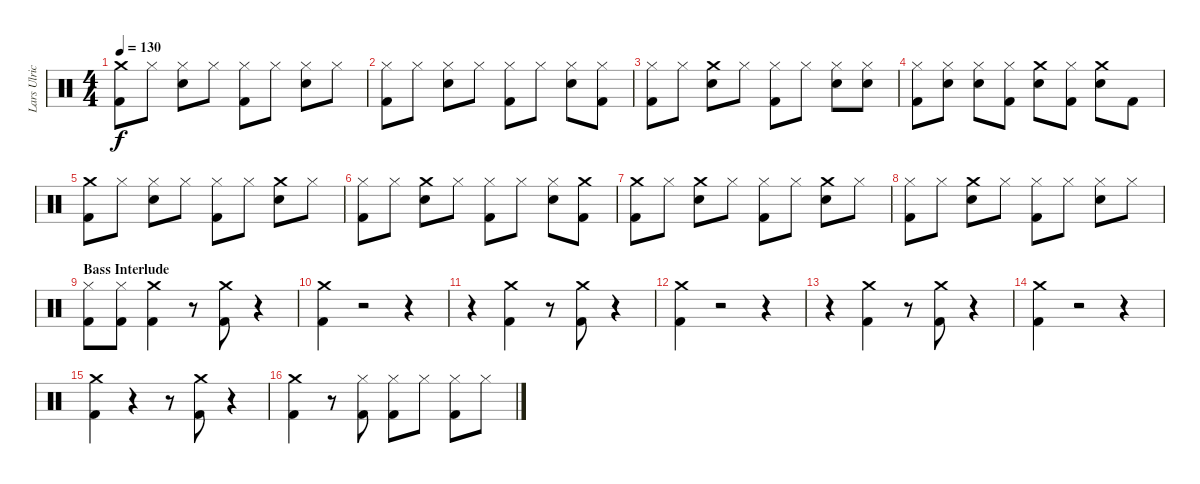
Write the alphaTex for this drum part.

\track ("Lars Ulrich (Drums)" "Lars Ulric") {instrument percussion}
\staff {score}
\articulation defaults
\ts (4 4)
\tempo 130
\clef neutral
\ks c
("Crash medium (hit)" "Kick (hit) 2").8{dy f} "Hi-Hat (closed)".8 ("Snare (hit) 2" "Hi-Hat (closed)").8 "Hi-Hat (closed)".8 ("Kick (hit) 2" "Hi-Hat (closed)").8 "Hi-Hat (closed)".8 ("Snare (hit) 2" "Hi-Hat (closed)").8 "Hi-Hat (closed)".8 |
("Kick (hit) 2" "Hi-Hat (closed)").8 "Hi-Hat (closed)".8 ("Snare (hit) 2" "Hi-Hat (closed)").8 "Hi-Hat (closed)".8 ("Kick (hit) 2" "Hi-Hat (closed)").8 "Hi-Hat (closed)".8 ("Snare (hit) 2" "Hi-Hat (closed)").8 ("Kick (hit) 2" "Hi-Hat (closed)").8 |
("Kick (hit) 2" "Hi-Hat (closed)").8 "Hi-Hat (closed)".8 ("Crash medium (hit)" "Snare (hit) 2").8 "Hi-Hat (closed)".8 ("Kick (hit) 2" "Hi-Hat (closed)").8 "Hi-Hat (closed)".8 ("Snare (hit) 2" "Hi-Hat (closed)").8 ("Snare (hit) 2" "Hi-Hat (closed)").8 |
("Kick (hit) 2" "Hi-Hat (closed)").8 ("Snare (hit) 2" "Hi-Hat (closed)").8 ("Snare (hit) 2" "Hi-Hat (closed)").8 ("Kick (hit) 2" "Hi-Hat (closed)").8 ("Crash medium (hit)" "Snare (hit) 2").8 ("Kick (hit) 2" "Hi-Hat (closed)").8 ("Crash medium (hit)" "Snare (hit) 2").8 "Kick (hit) 2".8 |
("Crash medium (hit)" "Kick (hit) 2").8 "Hi-Hat (closed)".8 ("Snare (hit) 2" "Hi-Hat (closed)").8 "Hi-Hat (closed)".8 ("Kick (hit) 2" "Hi-Hat (closed)").8 "Hi-Hat (closed)".8 ("Crash medium (hit)" "Snare (hit) 2").8 "Hi-Hat (closed)".8 |
("Kick (hit) 2" "Hi-Hat (closed)").8 "Hi-Hat (closed)".8 ("Crash medium (hit)" "Snare (hit) 2").8 "Hi-Hat (closed)".8 ("Kick (hit) 2" "Hi-Hat (closed)").8 "Hi-Hat (closed)".8 ("Snare (hit) 2" "Hi-Hat (closed)").8 ("Crash medium (hit)" "Kick (hit) 2").8 |
("Crash medium (hit)" "Kick (hit) 2").8 "Hi-Hat (closed)".8 ("Crash medium (hit)" "Snare (hit) 2").8 "Hi-Hat (closed)".8 ("Kick (hit) 2" "Hi-Hat (closed)").8 "Hi-Hat (closed)".8 ("Crash medium (hit)" "Snare (hit) 2").8 "Hi-Hat (closed)".8 |
("Hi-Hat (closed)" "Kick (hit) 2").8 "Hi-Hat (closed)".8 ("Crash medium (hit)" "Snare (hit) 2").8 "Hi-Hat (closed)".8 ("Hi-Hat (closed)" "Kick (hit) 2").8 "Hi-Hat (closed)".8 ("Snare (hit) 2" "Hi-Hat (closed)").8 "Hi-Hat (closed)".8 |
\section ("" "Bass Interlude")
("Kick (hit) 2" "Hi-Hat (closed)").8 ("Kick (hit) 2" "Hi-Hat (closed)").8 ("Kick (hit) 2" "Crash medium (hit)").4 r.8 ("Kick (hit) 2" "Crash medium (hit)").8 r.4 |
("Crash medium (hit)" "Kick (hit) 2").4 r.2 r.4 |
r.4 ("Kick (hit) 2" "Crash medium (hit)").4 r.8 ("Kick (hit) 2" "Crash medium (hit)").8 r.4 |
("Crash medium (hit)" "Kick (hit) 2").4 r.2 r.4 |
r.4 ("Kick (hit) 2" "Crash medium (hit)").4 r.8 ("Kick (hit) 2" "Crash medium (hit)").8 r.4 |
("Kick (hit) 2" "Crash medium (hit)").4 r.2 r.4 |
("Kick (hit) 2" "Crash medium (hit)").4 r.4 r.8 ("Kick (hit) 2" "Crash medium (hit)").8 r.4 |
("Crash medium (hit)" "Kick (hit) 2").4 r.8 ("Hi-Hat (closed)" "Kick (hit) 2").8 ("Hi-Hat (closed)" "Kick (hit) 2").8 "Hi-Hat (closed)".8 ("Hi-Hat (closed)" "Kick (hit) 2").8 "Hi-Hat (closed)".8
